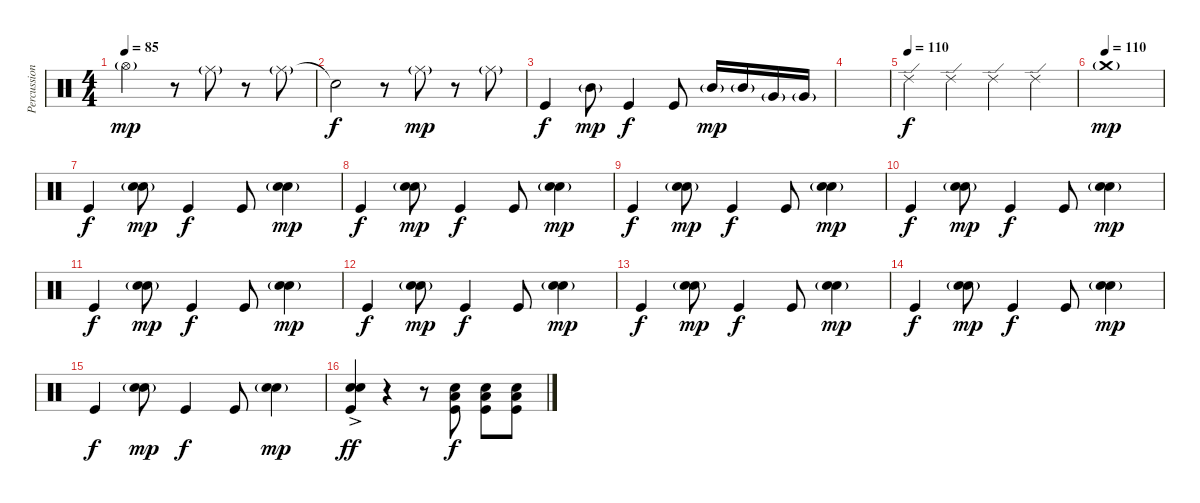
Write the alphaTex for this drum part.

\track ("Percussion" "Percussion") {instrument percussion}
\staff {score}
\articulation defaults
\ts (4 4)
\tempo 85
\clef neutral
\ks c "Hi-Hat (open)"{g}.2{dy mp}
r.8 "Ride (middle)"{g}.8 r.8 "Ride (middle)"{g}.8 |
"Snare (hit)"{t}.2{dy f} r.8 "Ride (middle)"{g}.8{dy mp} r.8 "Ride (middle)"{g}.8 |
"Kick (hit)".4{dy f} "Mid Tom (hit)"{g}.8{dy mp} "Kick (hit)".4{dy f} "Kick (hit)".8 "Mid Tom (hit)"{g}.16{dy mp} "Mid Tom (hit)"{g}.16 "Very Low Tom (hit)"{g}.16 "Very Low Tom (hit)"{g}.16 |
|
\tempo (110)
"Ride (edge) 2".4{dy f} "Ride (edge) 2".4 "Ride (edge) 2".4 "Ride (edge) 2".4 |
\tempo (110)
"Crash medium (hit)"{g}.1{dy mp} |
"Kick (hit)".4{dy f volume 13} ("Snare (hit) 2"{g} "Snare (hit) 2"{g}).8{bd 120 dy mp} "Kick (hit)".4{dy f} "Kick (hit)".8 ("Snare (hit) 2"{g} "Snare (hit) 2"{g}).4{bd 120 dy mp} |
"Kick (hit)".4{dy f} ("Snare (hit) 2"{g} "Snare (hit) 2"{g}).8{bd 120 dy mp} "Kick (hit)".4{dy f} "Kick (hit)".8 ("Snare (hit) 2"{g} "Snare (hit) 2"{g}).4{bd 120 dy mp} |
"Kick (hit)".4{dy f} ("Snare (hit) 2"{g} "Snare (hit) 2"{g}).8{bd 120 dy mp} "Kick (hit)".4{dy f} "Kick (hit)".8 ("Snare (hit) 2"{g} "Snare (hit) 2"{g}).4{bd 120 dy mp} |
"Kick (hit)".4{dy f} ("Snare (hit) 2"{g} "Snare (hit) 2"{g}).8{bd 120 dy mp} "Kick (hit)".4{dy f} "Kick (hit)".8 ("Snare (hit) 2"{g} "Snare (hit) 2"{g}).4{bd 120 dy mp} |
"Kick (hit)".4{dy f} ("Snare (hit) 2"{g} "Snare (hit) 2"{g}).8{bd 120 dy mp} "Kick (hit)".4{dy f} "Kick (hit)".8 ("Snare (hit) 2"{g} "Snare (hit) 2"{g}).4{bd 120 dy mp} |
"Kick (hit)".4{dy f} ("Snare (hit) 2"{g} "Snare (hit) 2"{g}).8{bd 120 dy mp} "Kick (hit)".4{dy f} "Kick (hit)".8 ("Snare (hit) 2"{g} "Snare (hit) 2"{g}).4{bd 120 dy mp} |
"Kick (hit)".4{dy f} ("Snare (hit) 2"{g} "Snare (hit) 2"{g}).8{bd 120 dy mp} "Kick (hit)".4{dy f} "Kick (hit)".8 ("Snare (hit) 2"{g} "Snare (hit) 2"{g}).4{bd 120 dy mp} |
"Kick (hit)".4{dy f} ("Snare (hit) 2"{g} "Snare (hit) 2"{g}).8{bd 120 dy mp} "Kick (hit)".4{dy f} "Kick (hit)".8 ("Snare (hit) 2"{g} "Snare (hit) 2"{g}).4{bd 120 dy mp} |
"Kick (hit)".4{dy f} ("Snare (hit) 2"{g} "Snare (hit) 2"{g}).8{bd 120 dy mp} "Kick (hit)".4{dy f} "Kick (hit)".8 ("Snare (hit) 2"{g} "Snare (hit) 2"{g}).4{bd 120 dy mp} |
("Snare (hit) 2"{ac} "Snare (hit) 2"{ac} "Kick (hit)"{ac}).4{dy ff} r.4 r.8{volume 0} ("Low Floor Tom (hit)" "Snare (hit) 2" "Kick (hit)").8{dy f volume 13} ("Low Floor Tom (hit)" "Snare (hit) 2" "Kick (hit)").8 ("Low Floor Tom (hit)" "Snare (hit) 2" "Kick (hit)").8
